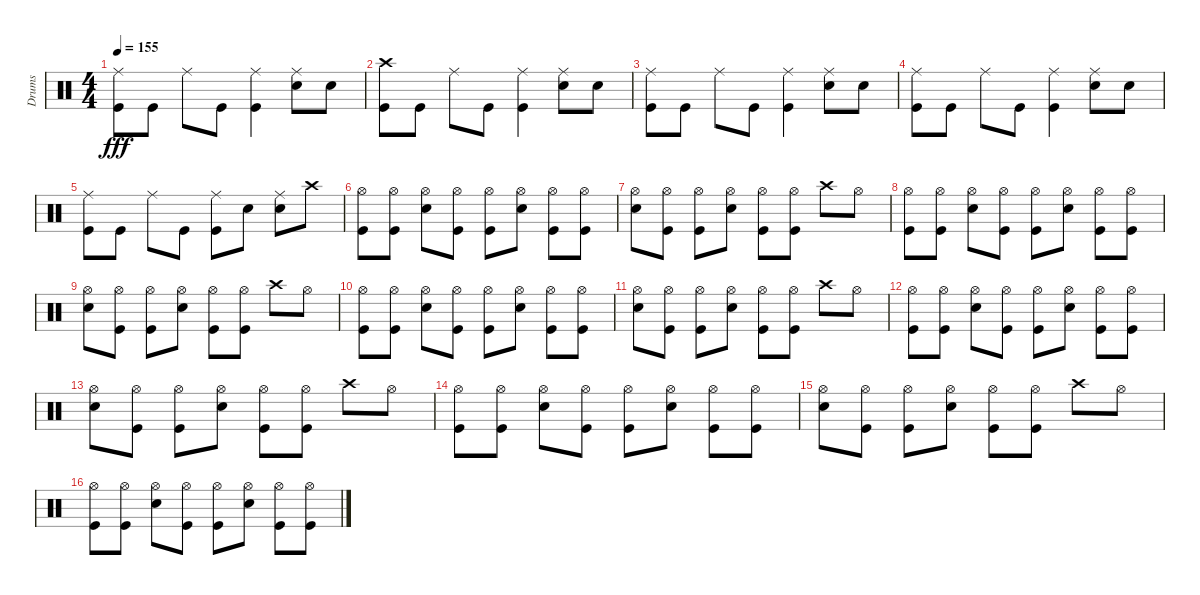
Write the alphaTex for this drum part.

\track ("Drums               " "Drums     ") {instrument percussion}
\staff {score}
\articulation defaults
\ts (4 4)
\tempo 155
\clef neutral
\ks c
("Kick (hit)" "Ride (middle)").8{dy fff} "Kick (hit)".8 "Ride (middle)".8 "Kick (hit)".8 ("Kick (hit)" "Ride (middle)").4 ("Snare (hit) 2" "Ride (middle)").8 "Snare (hit) 2".8 |
("Kick (hit)" "Crash high (hit)").8 "Kick (hit)".8 "Ride (middle)".8 "Kick (hit)".8 ("Kick (hit)" "Ride (middle)").4 ("Snare (hit) 2" "Ride (middle)").8 "Snare (hit) 2".8 |
("Kick (hit)" "Ride (middle)").8 "Kick (hit)".8 "Ride (middle)".8 "Kick (hit)".8 ("Kick (hit)" "Ride (middle)").4 ("Snare (hit) 2" "Ride (middle)").8 "Snare (hit) 2".8 |
("Kick (hit)" "Ride (middle)").8 "Kick (hit)".8 "Ride (middle)".8 "Kick (hit)".8 ("Kick (hit)" "Ride (middle)").4 ("Snare (hit) 2" "Ride (middle)").8 "Snare (hit) 2".8 |
("Ride (middle)" "Kick (hit)").8 "Kick (hit)".8 "Ride (middle)".8 "Kick (hit)".8 ("Ride (middle)" "Kick (hit)").8 "Snare (hit) 2".8 ("Ride (middle)" "Snare (hit) 2").8 "Crash high (hit)".8 |
("Kick (hit)" "Hi-Hat (open)").8 ("Kick (hit)" "Hi-Hat (open)").8 ("Hi-Hat (open)" "Snare (hit) 2").8 ("Hi-Hat (open)" "Kick (hit)").8 ("Hi-Hat (open)" "Kick (hit)").8 ("Hi-Hat (open)" "Snare (hit) 2").8 ("Hi-Hat (open)" "Kick (hit)").8 ("Hi-Hat (open)" "Kick (hit)").8 |
("Hi-Hat (open)" "Snare (hit) 2").8 ("Hi-Hat (open)" "Kick (hit)").8 ("Hi-Hat (open)" "Kick (hit)").8 ("Hi-Hat (open)" "Snare (hit) 2").8 ("Hi-Hat (open)" "Kick (hit)").8 ("Hi-Hat (open)" "Kick (hit)").8 "Crash high (hit)".8 "Hi-Hat (open)".8 |
("Kick (hit)" "Hi-Hat (open)").8 ("Kick (hit)" "Hi-Hat (open)").8 ("Hi-Hat (open)" "Snare (hit) 2").8 ("Hi-Hat (open)" "Kick (hit)").8 ("Hi-Hat (open)" "Kick (hit)").8 ("Hi-Hat (open)" "Snare (hit) 2").8 ("Hi-Hat (open)" "Kick (hit)").8 ("Hi-Hat (open)" "Kick (hit)").8 |
("Hi-Hat (open)" "Snare (hit) 2").8 ("Hi-Hat (open)" "Kick (hit)").8 ("Hi-Hat (open)" "Kick (hit)").8 ("Hi-Hat (open)" "Snare (hit) 2").8 ("Hi-Hat (open)" "Kick (hit)").8 ("Hi-Hat (open)" "Kick (hit)").8 "Crash high (hit)".8 "Hi-Hat (open)".8 |
("Kick (hit)" "Hi-Hat (open)").8 ("Kick (hit)" "Hi-Hat (open)").8 ("Hi-Hat (open)" "Snare (hit) 2").8 ("Hi-Hat (open)" "Kick (hit)").8 ("Hi-Hat (open)" "Kick (hit)").8 ("Hi-Hat (open)" "Snare (hit) 2").8 ("Hi-Hat (open)" "Kick (hit)").8 ("Hi-Hat (open)" "Kick (hit)").8 |
("Hi-Hat (open)" "Snare (hit) 2").8 ("Hi-Hat (open)" "Kick (hit)").8 ("Hi-Hat (open)" "Kick (hit)").8 ("Hi-Hat (open)" "Snare (hit) 2").8 ("Hi-Hat (open)" "Kick (hit)").8 ("Hi-Hat (open)" "Kick (hit)").8 "Crash high (hit)".8 "Hi-Hat (open)".8 |
("Kick (hit)" "Hi-Hat (open)").8 ("Kick (hit)" "Hi-Hat (open)").8 ("Hi-Hat (open)" "Snare (hit) 2").8 ("Hi-Hat (open)" "Kick (hit)").8 ("Hi-Hat (open)" "Kick (hit)").8 ("Hi-Hat (open)" "Snare (hit) 2").8 ("Hi-Hat (open)" "Kick (hit)").8 ("Hi-Hat (open)" "Kick (hit)").8 |
("Hi-Hat (open)" "Snare (hit) 2").8 ("Hi-Hat (open)" "Kick (hit)").8 ("Hi-Hat (open)" "Kick (hit)").8 ("Hi-Hat (open)" "Snare (hit) 2").8 ("Hi-Hat (open)" "Kick (hit)").8 ("Hi-Hat (open)" "Kick (hit)").8 "Crash high (hit)".8 "Hi-Hat (open)".8 |
("Kick (hit)" "Hi-Hat (open)").8 ("Kick (hit)" "Hi-Hat (open)").8 ("Hi-Hat (open)" "Snare (hit) 2").8 ("Hi-Hat (open)" "Kick (hit)").8 ("Hi-Hat (open)" "Kick (hit)").8 ("Hi-Hat (open)" "Snare (hit) 2").8 ("Hi-Hat (open)" "Kick (hit)").8 ("Hi-Hat (open)" "Kick (hit)").8 |
("Hi-Hat (open)" "Snare (hit) 2").8 ("Hi-Hat (open)" "Kick (hit)").8 ("Hi-Hat (open)" "Kick (hit)").8 ("Hi-Hat (open)" "Snare (hit) 2").8 ("Hi-Hat (open)" "Kick (hit)").8 ("Hi-Hat (open)" "Kick (hit)").8 "Crash high (hit)".8 "Hi-Hat (open)".8 |
("Kick (hit)" "Hi-Hat (open)").8 ("Kick (hit)" "Hi-Hat (open)").8 ("Hi-Hat (open)" "Snare (hit) 2").8 ("Hi-Hat (open)" "Kick (hit)").8 ("Hi-Hat (open)" "Kick (hit)").8 ("Hi-Hat (open)" "Snare (hit) 2").8 ("Hi-Hat (open)" "Kick (hit)").8 ("Hi-Hat (open)" "Kick (hit)").8
